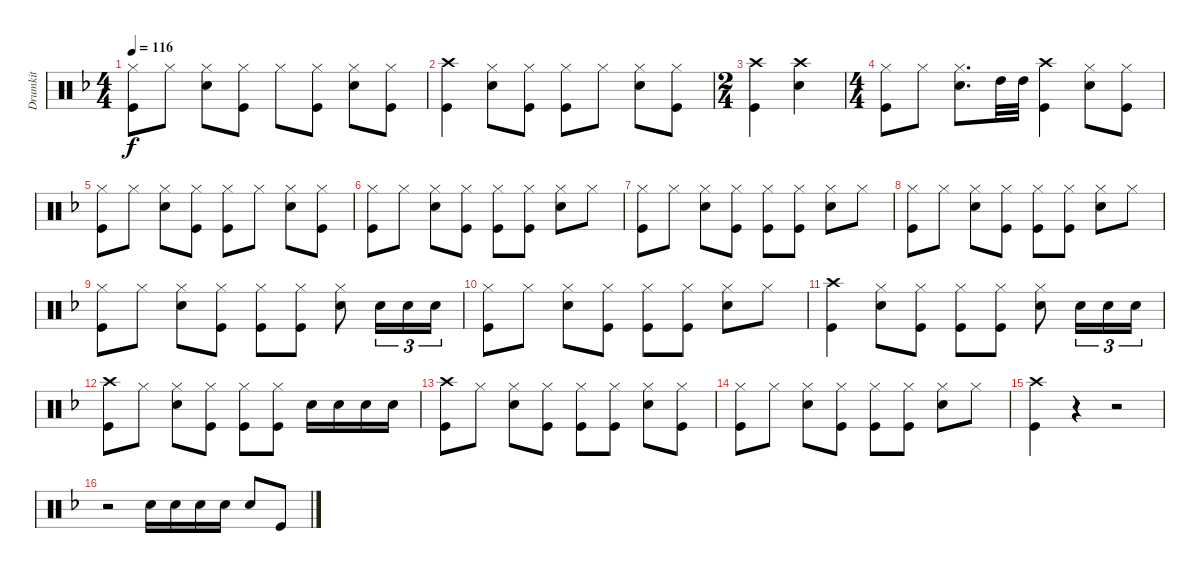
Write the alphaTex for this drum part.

\track ("Drumkit" "Drumkit") {instrument percussion}
\staff {score}
\articulation defaults
\ts (4 4)
\tempo 116
\clef neutral
\ks dminor
("Hi-Hat (closed)" "Kick (hit)").8{dy f} "Hi-Hat (closed)".8 ("Hi-Hat (closed)" "Snare (hit) 2").8 ("Hi-Hat (closed)" "Kick (hit)").8 "Hi-Hat (closed)".8 ("Hi-Hat (closed)" "Kick (hit)").8 ("Hi-Hat (closed)" "Snare (hit) 2").8 ("Hi-Hat (closed)" "Kick (hit)").8 |
("Crash high (hit)" "Kick (hit)").4 ("Hi-Hat (closed)" "Snare (hit) 2").8 ("Hi-Hat (closed)" "Kick (hit)").8 ("Hi-Hat (closed)" "Kick (hit)").8 "Hi-Hat (closed)".8 ("Hi-Hat (closed)" "Snare (hit) 2").8 ("Hi-Hat (closed)" "Kick (hit)").8 |
\ts (2 4)
("Crash high (hit)" "Kick (hit)").4 ("Crash high (hit)" "Snare (hit) 2").4 |
\ts (4 4)
("Hi-Hat (closed)" "Kick (hit)").8 "Hi-Hat (closed)".8 ("Hi-Hat (closed)" "Snare (hit) 2").8{d} "High Tom (hit)".32 "High Tom (hit)".32 ("Crash high (hit)" "Kick (hit)").4 ("Hi-Hat (closed)" "Snare (hit) 2").8 ("Hi-Hat (closed)" "Kick (hit)").8 |
("Hi-Hat (closed)" "Kick (hit)").8 "Hi-Hat (closed)".8 ("Hi-Hat (closed)" "Snare (hit) 2").8 ("Hi-Hat (closed)" "Kick (hit)").8 ("Hi-Hat (closed)" "Kick (hit)").8 "Hi-Hat (closed)".8 ("Hi-Hat (closed)" "Snare (hit) 2").8 ("Hi-Hat (closed)" "Kick (hit)").8 |
("Hi-Hat (closed)" "Kick (hit)").8 "Hi-Hat (closed)".8 ("Hi-Hat (closed)" "Snare (hit) 2").8 ("Hi-Hat (closed)" "Kick (hit)").8 ("Hi-Hat (closed)" "Kick (hit)").8 ("Hi-Hat (closed)" "Kick (hit)").8 ("Hi-Hat (closed)" "Snare (hit) 2").8 "Hi-Hat (closed)".8 |
("Hi-Hat (closed)" "Kick (hit)").8 "Hi-Hat (closed)".8 ("Hi-Hat (closed)" "Snare (hit) 2").8 ("Hi-Hat (closed)" "Kick (hit)").8 ("Hi-Hat (closed)" "Kick (hit)").8 ("Hi-Hat (closed)" "Kick (hit)").8 ("Hi-Hat (closed)" "Snare (hit) 2").8 "Hi-Hat (closed)".8 |
("Hi-Hat (closed)" "Kick (hit)").8 "Hi-Hat (closed)".8 ("Hi-Hat (closed)" "Snare (hit) 2").8 ("Hi-Hat (closed)" "Kick (hit)").8 ("Hi-Hat (closed)" "Kick (hit)").8 ("Hi-Hat (closed)" "Kick (hit)").8 ("Hi-Hat (closed)" "Snare (hit) 2").8 "Hi-Hat (closed)".8 |
("Hi-Hat (closed)" "Kick (hit)").8 "Hi-Hat (closed)".8 ("Hi-Hat (closed)" "Snare (hit) 2").8 ("Hi-Hat (closed)" "Kick (hit)").8 ("Hi-Hat (closed)" "Kick (hit)").8 ("Hi-Hat (closed)" "Kick (hit)").8 ("Hi-Hat (closed)" "Snare (hit) 2").8 "Snare (hit) 2".16{tu (3 2)} "Snare (hit) 2".16{tu (3 2)} "Snare (hit) 2".16{tu (3 2)} |
("Hi-Hat (closed)" "Kick (hit)").8 "Hi-Hat (closed)".8 ("Hi-Hat (closed)" "Snare (hit) 2").8 ("Hi-Hat (closed)" "Kick (hit)").8 ("Hi-Hat (closed)" "Kick (hit)").8 ("Hi-Hat (closed)" "Kick (hit)").8 ("Hi-Hat (closed)" "Snare (hit) 2").8 "Hi-Hat (closed)".8 |
("Crash high (hit)" "Kick (hit)").4 ("Hi-Hat (closed)" "Snare (hit) 2").8 ("Hi-Hat (closed)" "Kick (hit)").8 ("Hi-Hat (closed)" "Kick (hit)").8 ("Hi-Hat (closed)" "Kick (hit)").8 ("Hi-Hat (closed)" "Snare (hit) 2").8 "Snare (hit) 2".16{tu (3 2)} "Snare (hit) 2".16{tu (3 2)} "Snare (hit) 2".16{tu (3 2)} |
("Crash high (hit)" "Kick (hit)").8 "Hi-Hat (closed)".8 ("Hi-Hat (closed)" "Snare (hit) 2").8 ("Hi-Hat (closed)" "Kick (hit)").8 ("Hi-Hat (closed)" "Kick (hit)").8 ("Hi-Hat (closed)" "Kick (hit)").8 "Snare (hit) 2".16 "Snare (hit) 2".16 "Snare (hit) 2".16 "Snare (hit) 2".16 |
("Crash high (hit)" "Kick (hit)").8 "Hi-Hat (closed)".8 ("Hi-Hat (closed)" "Snare (hit) 2").8 ("Hi-Hat (closed)" "Kick (hit)").8 ("Hi-Hat (closed)" "Kick (hit)").8 ("Hi-Hat (closed)" "Kick (hit)").8 ("Hi-Hat (closed)" "Snare (hit) 2").8 ("Hi-Hat (closed)" "Kick (hit)").8 |
("Hi-Hat (closed)" "Kick (hit)").8 "Hi-Hat (closed)".8 ("Hi-Hat (closed)" "Snare (hit) 2").8 ("Hi-Hat (closed)" "Kick (hit)").8 ("Hi-Hat (closed)" "Kick (hit)").8 ("Hi-Hat (closed)" "Kick (hit)").8 ("Hi-Hat (closed)" "Snare (hit) 2").8 "Hi-Hat (closed)".8 |
("Crash high (hit)" "Kick (hit)").4 r.4 r.2 |
r.2 "Snare (hit) 2".16 "Snare (hit) 2".16 "Snare (hit) 2".16 "Snare (hit) 2".16 "Snare (hit) 2".8 "Kick (hit)".8
